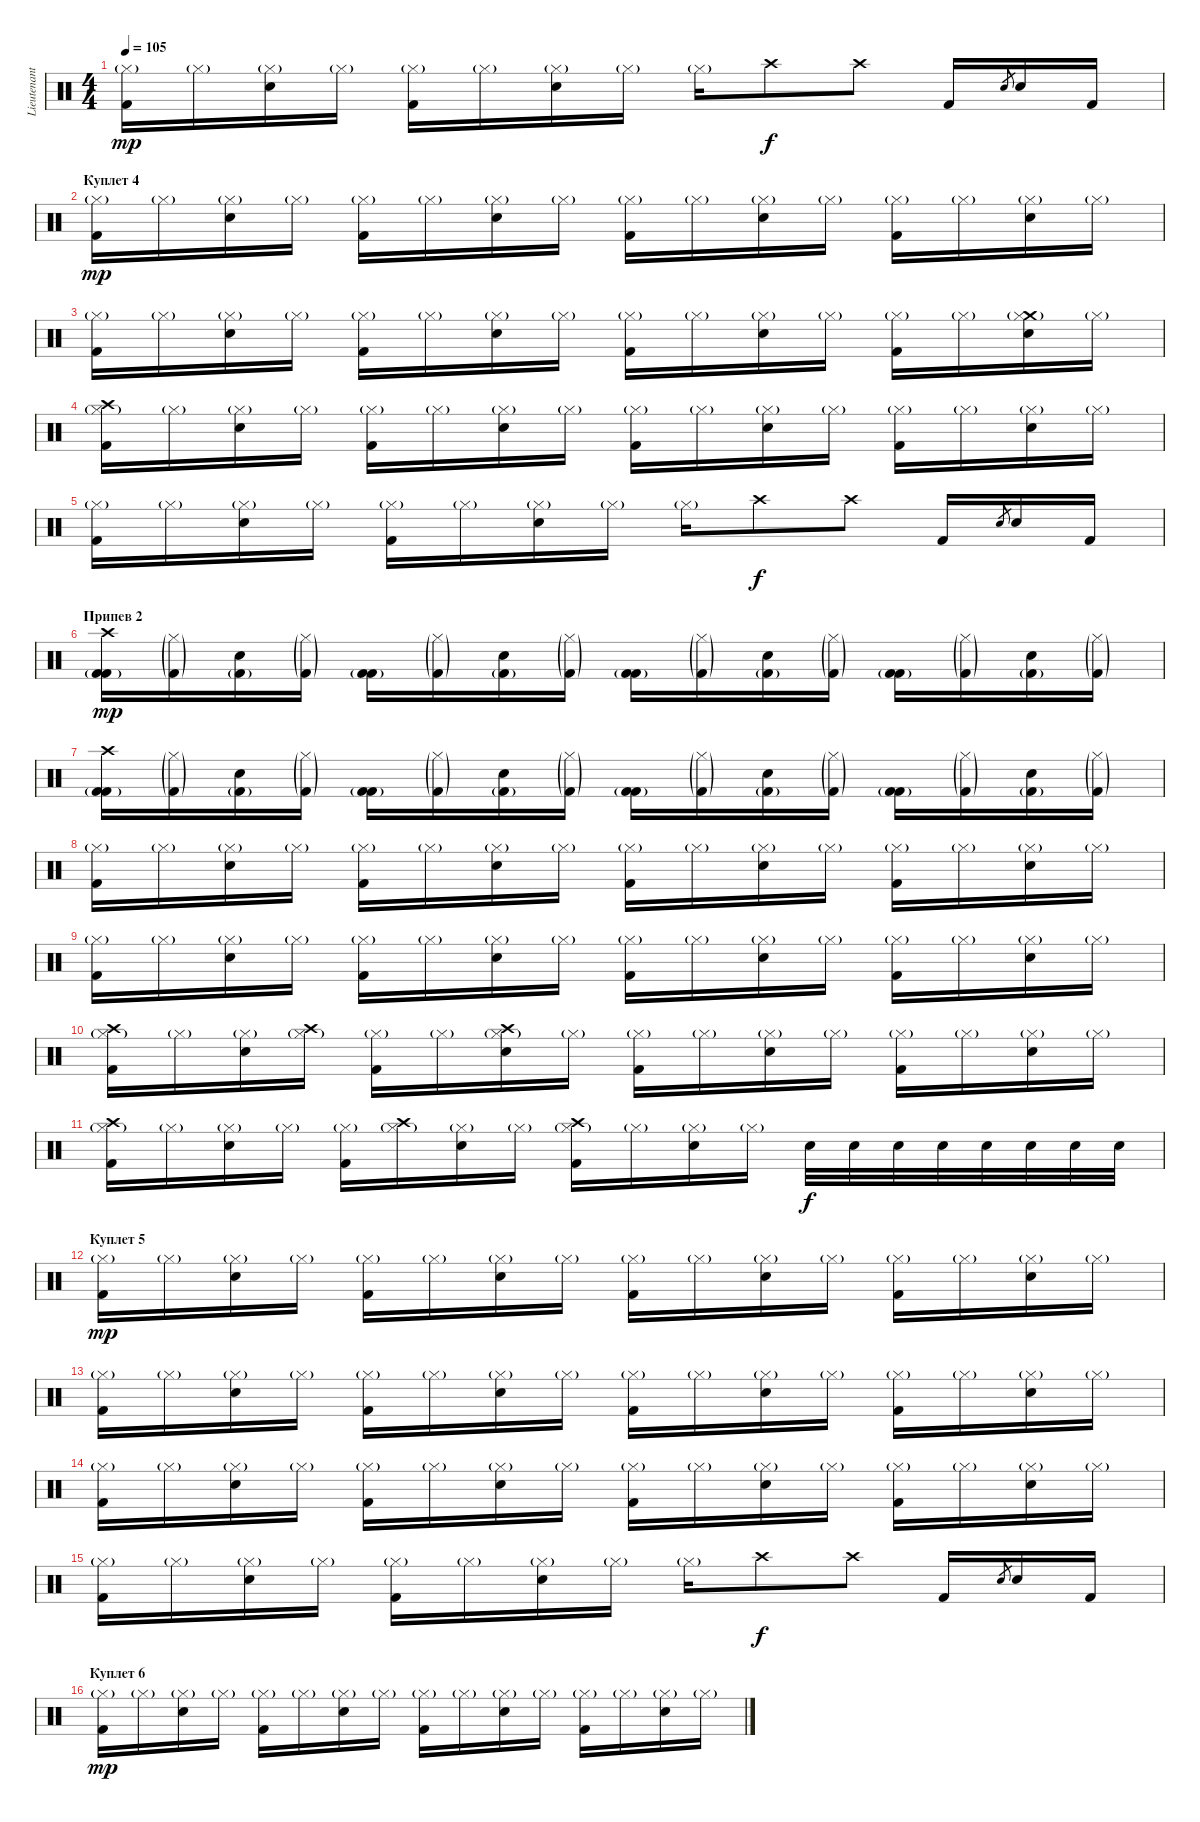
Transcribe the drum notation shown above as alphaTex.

\track ("Lieutenant [drums]" "Lieutenant") {instrument percussion}
\staff {score}
\articulation defaults
\ts (4 4)
\tempo 105
\clef neutral
\ks c
("Kick (hit) 2" "Hi-Hat (closed)"{g}).16{dy mp} "Hi-Hat (closed)"{g}.16 ("Snare (hit) 2" "Hi-Hat (closed)"{g}).16 "Hi-Hat (closed)"{g}.16 ("Kick (hit) 2" "Hi-Hat (closed)"{g}).16 "Hi-Hat (closed)"{g}.16 ("Snare (hit) 2" "Hi-Hat (closed)"{g}).16 "Hi-Hat (closed)"{g}.16 "Hi-Hat (closed)"{g}.16 "Crash high (hit)".8{dy f} "Crash high (hit)".8 "Kick (hit) 2".16 "Snare (hit) 2".8{gr} "Snare (hit) 2".16 "Kick (hit) 2".16 |
\section ("" "Куплет 4")
("Kick (hit) 2" "Hi-Hat (closed)"{g}).16{dy mp} "Hi-Hat (closed)"{g}.16 ("Snare (hit) 2" "Hi-Hat (closed)"{g}).16 "Hi-Hat (closed)"{g}.16 ("Kick (hit) 2" "Hi-Hat (closed)"{g}).16 "Hi-Hat (closed)"{g}.16 ("Snare (hit) 2" "Hi-Hat (closed)"{g}).16 "Hi-Hat (closed)"{g}.16 ("Kick (hit) 2" "Hi-Hat (closed)"{g}).16 "Hi-Hat (closed)"{g}.16 ("Snare (hit) 2" "Hi-Hat (closed)"{g}).16 "Hi-Hat (closed)"{g}.16 ("Kick (hit) 2" "Hi-Hat (closed)"{g}).16 "Hi-Hat (closed)"{g}.16 ("Snare (hit) 2" "Hi-Hat (closed)"{g}).16 "Hi-Hat (closed)"{g}.16 |
("Kick (hit) 2" "Hi-Hat (closed)"{g}).16 "Hi-Hat (closed)"{g}.16 ("Snare (hit) 2" "Hi-Hat (closed)"{g}).16 "Hi-Hat (closed)"{g}.16 ("Kick (hit) 2" "Hi-Hat (closed)"{g}).16 "Hi-Hat (closed)"{g}.16 ("Snare (hit) 2" "Hi-Hat (closed)"{g}).16 "Hi-Hat (closed)"{g}.16 ("Kick (hit) 2" "Hi-Hat (closed)"{g}).16 "Hi-Hat (closed)"{g}.16 ("Snare (hit) 2" "Hi-Hat (closed)"{g}).16 "Hi-Hat (closed)"{g}.16 ("Kick (hit) 2" "Hi-Hat (closed)"{g}).16 "Hi-Hat (closed)"{g}.16 ("Snare (hit) 2" "Crash medium (hit)" "Hi-Hat (closed)"{g}).16 "Hi-Hat (closed)"{g}.16 |
("Kick (hit) 2" "Crash high (hit)" "Hi-Hat (closed)"{g}).16 "Hi-Hat (closed)"{g}.16 ("Snare (hit) 2" "Hi-Hat (closed)"{g}).16 "Hi-Hat (closed)"{g}.16 ("Kick (hit) 2" "Hi-Hat (closed)"{g}).16 "Hi-Hat (closed)"{g}.16 ("Snare (hit) 2" "Hi-Hat (closed)"{g}).16 "Hi-Hat (closed)"{g}.16 ("Kick (hit) 2" "Hi-Hat (closed)"{g}).16 "Hi-Hat (closed)"{g}.16 ("Snare (hit) 2" "Hi-Hat (closed)"{g}).16 "Hi-Hat (closed)"{g}.16 ("Kick (hit) 2" "Hi-Hat (closed)"{g}).16 "Hi-Hat (closed)"{g}.16 ("Snare (hit) 2" "Hi-Hat (closed)"{g}).16 "Hi-Hat (closed)"{g}.16 |
("Kick (hit) 2" "Hi-Hat (closed)"{g}).16 "Hi-Hat (closed)"{g}.16 ("Snare (hit) 2" "Hi-Hat (closed)"{g}).16 "Hi-Hat (closed)"{g}.16 ("Kick (hit) 2" "Hi-Hat (closed)"{g}).16 "Hi-Hat (closed)"{g}.16 ("Snare (hit) 2" "Hi-Hat (closed)"{g}).16 "Hi-Hat (closed)"{g}.16 "Hi-Hat (closed)"{g}.16 "Crash high (hit)".8{dy f} "Crash high (hit)".8 "Kick (hit) 2".16 "Snare (hit) 2".8{gr} "Snare (hit) 2".16 "Kick (hit) 2".16 |
\section ("" "Припев 2")
("Crash high (hit)" "Kick (hit) 2" "Kick (hit) 2"{g}).16{dy mp} ("Hi-Hat (closed)"{g} "Kick (hit) 2"{g}).16 ("Snare (hit) 2" "Kick (hit) 2"{g}).16 ("Hi-Hat (closed)"{g} "Kick (hit) 2"{g}).16 ("Kick (hit) 2" "Kick (hit) 2"{g}).16 ("Hi-Hat (closed)"{g} "Kick (hit) 2"{g}).16 ("Snare (hit) 2" "Kick (hit) 2"{g}).16 ("Hi-Hat (closed)"{g} "Kick (hit) 2"{g}).16 ("Kick (hit) 2" "Kick (hit) 2"{g}).16 ("Hi-Hat (closed)"{g} "Kick (hit) 2"{g}).16 ("Snare (hit) 2" "Kick (hit) 2"{g}).16 ("Hi-Hat (closed)"{g} "Kick (hit) 2"{g}).16 ("Kick (hit) 2" "Kick (hit) 2"{g}).16 ("Hi-Hat (closed)"{g} "Kick (hit) 2"{g}).16 ("Snare (hit) 2" "Kick (hit) 2"{g}).16 ("Hi-Hat (closed)"{g} "Kick (hit) 2"{g}).16 |
("Crash high (hit)" "Kick (hit) 2" "Kick (hit) 2"{g}).16 ("Hi-Hat (closed)"{g} "Kick (hit) 2"{g}).16 ("Snare (hit) 2" "Kick (hit) 2"{g}).16 ("Hi-Hat (closed)"{g} "Kick (hit) 2"{g}).16 ("Kick (hit) 2" "Kick (hit) 2"{g}).16 ("Hi-Hat (closed)"{g} "Kick (hit) 2"{g}).16 ("Snare (hit) 2" "Kick (hit) 2"{g}).16 ("Hi-Hat (closed)"{g} "Kick (hit) 2"{g}).16 ("Kick (hit) 2" "Kick (hit) 2"{g}).16 ("Hi-Hat (closed)"{g} "Kick (hit) 2"{g}).16 ("Snare (hit) 2" "Kick (hit) 2"{g}).16 ("Hi-Hat (closed)"{g} "Kick (hit) 2"{g}).16 ("Kick (hit) 2" "Kick (hit) 2"{g}).16 ("Hi-Hat (closed)"{g} "Kick (hit) 2"{g}).16 ("Snare (hit) 2" "Kick (hit) 2"{g}).16 ("Hi-Hat (closed)"{g} "Kick (hit) 2"{g}).16 |
("Kick (hit) 2" "Hi-Hat (closed)"{g}).16 "Hi-Hat (closed)"{g}.16 ("Snare (hit) 2" "Hi-Hat (closed)"{g}).16 "Hi-Hat (closed)"{g}.16 ("Kick (hit) 2" "Hi-Hat (closed)"{g}).16 "Hi-Hat (closed)"{g}.16 ("Snare (hit) 2" "Hi-Hat (closed)"{g}).16 "Hi-Hat (closed)"{g}.16 ("Kick (hit) 2" "Hi-Hat (closed)"{g}).16 "Hi-Hat (closed)"{g}.16 ("Snare (hit) 2" "Hi-Hat (closed)"{g}).16 "Hi-Hat (closed)"{g}.16 ("Kick (hit) 2" "Hi-Hat (closed)"{g}).16 "Hi-Hat (closed)"{g}.16 ("Snare (hit) 2" "Hi-Hat (closed)"{g}).16 "Hi-Hat (closed)"{g}.16 |
("Kick (hit) 2" "Hi-Hat (closed)"{g}).16 "Hi-Hat (closed)"{g}.16 ("Snare (hit) 2" "Hi-Hat (closed)"{g}).16 "Hi-Hat (closed)"{g}.16 ("Kick (hit) 2" "Hi-Hat (closed)"{g}).16 "Hi-Hat (closed)"{g}.16 ("Snare (hit) 2" "Hi-Hat (closed)"{g}).16 "Hi-Hat (closed)"{g}.16 ("Kick (hit) 2" "Hi-Hat (closed)"{g}).16 "Hi-Hat (closed)"{g}.16 ("Snare (hit) 2" "Hi-Hat (closed)"{g}).16 "Hi-Hat (closed)"{g}.16 ("Kick (hit) 2" "Hi-Hat (closed)"{g}).16 "Hi-Hat (closed)"{g}.16 ("Snare (hit) 2" "Hi-Hat (closed)"{g}).16 "Hi-Hat (closed)"{g}.16 |
("Kick (hit) 2" "Crash high (hit)" "Hi-Hat (closed)"{g}).16 "Hi-Hat (closed)"{g}.16 ("Snare (hit) 2" "Hi-Hat (closed)"{g}).16 ("Crash high (hit)" "Hi-Hat (closed)"{g}).16 ("Kick (hit) 2" "Hi-Hat (closed)"{g}).16 "Hi-Hat (closed)"{g}.16 ("Snare (hit) 2" "Crash high (hit)" "Hi-Hat (closed)"{g}).16 "Hi-Hat (closed)"{g}.16 ("Kick (hit) 2" "Hi-Hat (closed)"{g}).16 "Hi-Hat (closed)"{g}.16 ("Snare (hit) 2" "Hi-Hat (closed)"{g}).16 "Hi-Hat (closed)"{g}.16 ("Kick (hit) 2" "Hi-Hat (closed)"{g}).16 "Hi-Hat (closed)"{g}.16 ("Snare (hit) 2" "Hi-Hat (closed)"{g}).16 "Hi-Hat (closed)"{g}.16 |
("Kick (hit) 2" "Crash high (hit)" "Hi-Hat (closed)"{g}).16 "Hi-Hat (closed)"{g}.16 ("Snare (hit) 2" "Hi-Hat (closed)"{g}).16 "Hi-Hat (closed)"{g}.16 ("Kick (hit) 2" "Hi-Hat (closed)"{g}).16 ("Crash high (hit)" "Hi-Hat (closed)"{g}).16 ("Snare (hit) 2" "Hi-Hat (closed)"{g}).16 "Hi-Hat (closed)"{g}.16 ("Kick (hit) 2" "Crash high (hit)" "Hi-Hat (closed)"{g}).16 "Hi-Hat (closed)"{g}.16 ("Snare (hit) 2" "Hi-Hat (closed)"{g}).16 "Hi-Hat (closed)"{g}.16 "Snare (hit) 2".32{dy f} "Snare (hit) 2".32 "Snare (hit) 2".32 "Snare (hit) 2".32 "Snare (hit) 2".32 "Snare (hit) 2".32 "Snare (hit) 2".32 "Snare (hit) 2".32 |
\section ("" "Куплет 5")
("Kick (hit) 2" "Hi-Hat (closed)"{g}).16{dy mp} "Hi-Hat (closed)"{g}.16 ("Snare (hit) 2" "Hi-Hat (closed)"{g}).16 "Hi-Hat (closed)"{g}.16 ("Kick (hit) 2" "Hi-Hat (closed)"{g}).16 "Hi-Hat (closed)"{g}.16 ("Snare (hit) 2" "Hi-Hat (closed)"{g}).16 "Hi-Hat (closed)"{g}.16 ("Kick (hit) 2" "Hi-Hat (closed)"{g}).16 "Hi-Hat (closed)"{g}.16 ("Snare (hit) 2" "Hi-Hat (closed)"{g}).16 "Hi-Hat (closed)"{g}.16 ("Kick (hit) 2" "Hi-Hat (closed)"{g}).16 "Hi-Hat (closed)"{g}.16 ("Snare (hit) 2" "Hi-Hat (closed)"{g}).16 "Hi-Hat (closed)"{g}.16 |
("Kick (hit) 2" "Hi-Hat (closed)"{g}).16 "Hi-Hat (closed)"{g}.16 ("Snare (hit) 2" "Hi-Hat (closed)"{g}).16 "Hi-Hat (closed)"{g}.16 ("Kick (hit) 2" "Hi-Hat (closed)"{g}).16 "Hi-Hat (closed)"{g}.16 ("Snare (hit) 2" "Hi-Hat (closed)"{g}).16 "Hi-Hat (closed)"{g}.16 ("Kick (hit) 2" "Hi-Hat (closed)"{g}).16 "Hi-Hat (closed)"{g}.16 ("Snare (hit) 2" "Hi-Hat (closed)"{g}).16 "Hi-Hat (closed)"{g}.16 ("Kick (hit) 2" "Hi-Hat (closed)"{g}).16 "Hi-Hat (closed)"{g}.16 ("Snare (hit) 2" "Hi-Hat (closed)"{g}).16 "Hi-Hat (closed)"{g}.16 |
("Kick (hit) 2" "Hi-Hat (closed)"{g}).16 "Hi-Hat (closed)"{g}.16 ("Snare (hit) 2" "Hi-Hat (closed)"{g}).16 "Hi-Hat (closed)"{g}.16 ("Kick (hit) 2" "Hi-Hat (closed)"{g}).16 "Hi-Hat (closed)"{g}.16 ("Snare (hit) 2" "Hi-Hat (closed)"{g}).16 "Hi-Hat (closed)"{g}.16 ("Kick (hit) 2" "Hi-Hat (closed)"{g}).16 "Hi-Hat (closed)"{g}.16 ("Snare (hit) 2" "Hi-Hat (closed)"{g}).16 "Hi-Hat (closed)"{g}.16 ("Kick (hit) 2" "Hi-Hat (closed)"{g}).16 "Hi-Hat (closed)"{g}.16 ("Snare (hit) 2" "Hi-Hat (closed)"{g}).16 "Hi-Hat (closed)"{g}.16 |
("Kick (hit) 2" "Hi-Hat (closed)"{g}).16 "Hi-Hat (closed)"{g}.16 ("Snare (hit) 2" "Hi-Hat (closed)"{g}).16 "Hi-Hat (closed)"{g}.16 ("Kick (hit) 2" "Hi-Hat (closed)"{g}).16 "Hi-Hat (closed)"{g}.16 ("Snare (hit) 2" "Hi-Hat (closed)"{g}).16 "Hi-Hat (closed)"{g}.16 "Hi-Hat (closed)"{g}.16 "Crash high (hit)".8{dy f} "Crash high (hit)".8 "Kick (hit) 2".16 "Snare (hit) 2".8{gr} "Snare (hit) 2".16 "Kick (hit) 2".16 |
\section ("" "Куплет 6")
("Kick (hit) 2" "Hi-Hat (closed)"{g}).16{dy mp} "Hi-Hat (closed)"{g}.16 ("Snare (hit) 2" "Hi-Hat (closed)"{g}).16 "Hi-Hat (closed)"{g}.16 ("Kick (hit) 2" "Hi-Hat (closed)"{g}).16 "Hi-Hat (closed)"{g}.16 ("Snare (hit) 2" "Hi-Hat (closed)"{g}).16 "Hi-Hat (closed)"{g}.16 ("Kick (hit) 2" "Hi-Hat (closed)"{g}).16 "Hi-Hat (closed)"{g}.16 ("Snare (hit) 2" "Hi-Hat (closed)"{g}).16 "Hi-Hat (closed)"{g}.16 ("Kick (hit) 2" "Hi-Hat (closed)"{g}).16 "Hi-Hat (closed)"{g}.16 ("Snare (hit) 2" "Hi-Hat (closed)"{g}).16 "Hi-Hat (closed)"{g}.16
